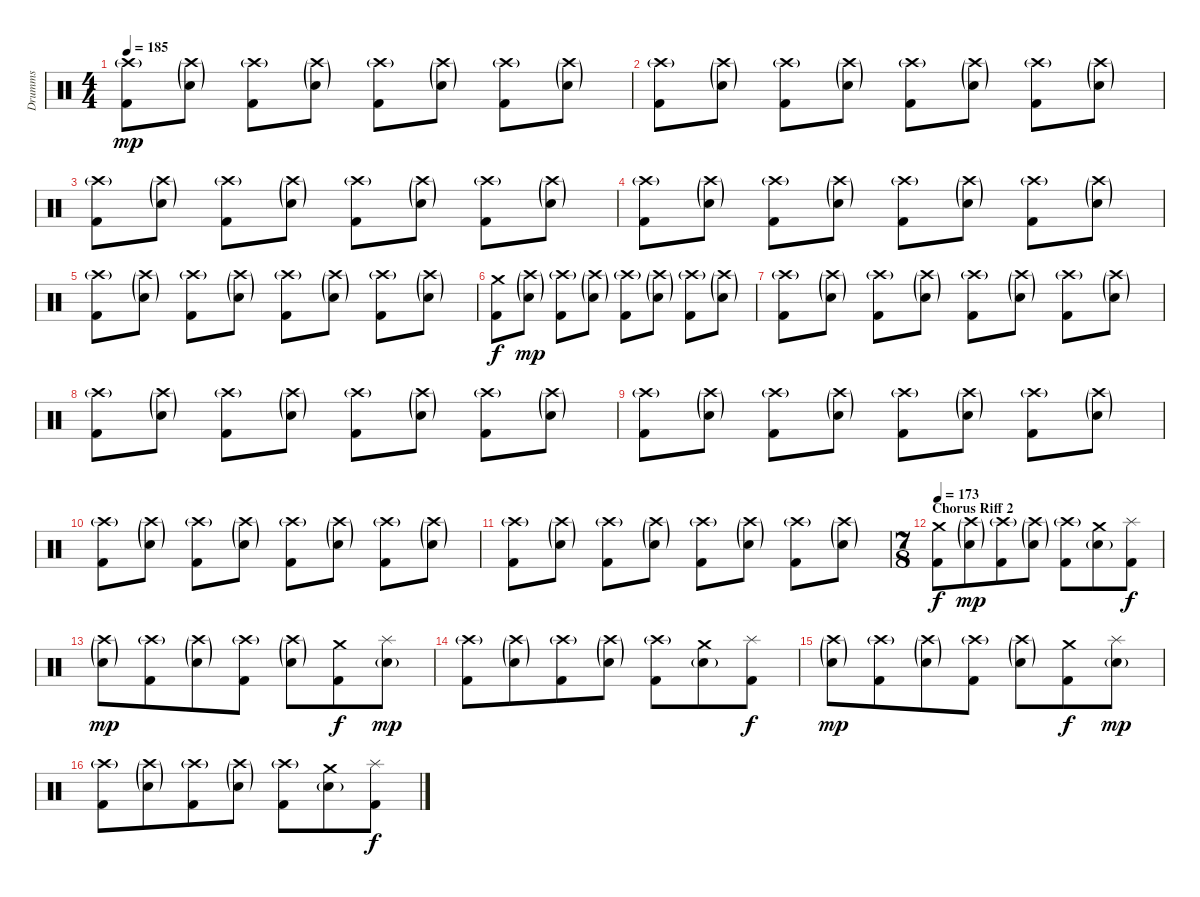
\track ("Drumms" "Drumms") {instrument percussion}
\staff {score}
\articulation defaults
\ts (4 4)
\tempo 185
\clef neutral
\ks c
("Crash high (hit)"{g} "Kick (hit) 2").8{dy mp} ("Crash high (hit)"{g} "Snare (hit) 2"{g}).8 ("Crash high (hit)"{g} "Kick (hit) 2").8 ("Crash high (hit)"{g} "Snare (hit) 2"{g}).8 ("Crash high (hit)"{g} "Kick (hit) 2").8 ("Crash high (hit)"{g} "Snare (hit) 2"{g}).8 ("Crash high (hit)"{g} "Kick (hit) 2").8 ("Crash high (hit)"{g} "Snare (hit) 2"{g}).8 |
("Crash high (hit)"{g} "Kick (hit) 2").8 ("Crash high (hit)"{g} "Snare (hit) 2"{g}).8 ("Crash high (hit)"{g} "Kick (hit) 2").8 ("Crash high (hit)"{g} "Snare (hit) 2"{g}).8 ("Crash high (hit)"{g} "Kick (hit) 2").8 ("Crash high (hit)"{g} "Snare (hit) 2"{g}).8 ("Crash high (hit)"{g} "Kick (hit) 2").8 ("Crash high (hit)"{g} "Snare (hit) 2"{g}).8 |
("Crash high (hit)"{g} "Kick (hit) 2").8 ("Crash high (hit)"{g} "Snare (hit) 2"{g}).8 ("Crash high (hit)"{g} "Kick (hit) 2").8 ("Crash high (hit)"{g} "Snare (hit) 2"{g}).8 ("Crash high (hit)"{g} "Kick (hit) 2").8 ("Crash high (hit)"{g} "Snare (hit) 2"{g}).8 ("Crash high (hit)"{g} "Kick (hit) 2").8 ("Crash high (hit)"{g} "Snare (hit) 2"{g}).8 |
("Crash high (hit)"{g} "Kick (hit) 2").8 ("Crash high (hit)"{g} "Snare (hit) 2"{g}).8 ("Crash high (hit)"{g} "Kick (hit) 2").8 ("Crash high (hit)"{g} "Snare (hit) 2"{g}).8 ("Crash high (hit)"{g} "Kick (hit) 2").8 ("Crash high (hit)"{g} "Snare (hit) 2"{g}).8 ("Crash high (hit)"{g} "Kick (hit) 2").8 ("Crash high (hit)"{g} "Snare (hit) 2"{g}).8 |
("Crash high (hit)"{g} "Kick (hit) 2").8 ("Crash high (hit)"{g} "Snare (hit) 2"{g}).8 ("Crash high (hit)"{g} "Kick (hit) 2").8 ("Crash high (hit)"{g} "Snare (hit) 2"{g}).8 ("Crash high (hit)"{g} "Kick (hit) 2").8 ("Crash high (hit)"{g} "Snare (hit) 2"{g}).8 ("Crash high (hit)"{g} "Kick (hit) 2").8 ("Crash high (hit)"{g} "Snare (hit) 2"{g}).8 |
("Crash medium (hit)" "Kick (hit) 2").8{dy f} ("Crash high (hit)"{g} "Snare (hit) 2"{g}).8{dy mp} ("Crash high (hit)"{g} "Kick (hit) 2").8 ("Crash high (hit)"{g} "Snare (hit) 2"{g}).8 ("Crash high (hit)"{g} "Kick (hit) 2").8 ("Crash high (hit)"{g} "Snare (hit) 2"{g}).8 ("Crash high (hit)"{g} "Kick (hit) 2").8 ("Crash high (hit)"{g} "Snare (hit) 2"{g}).8 |
("Crash high (hit)"{g} "Kick (hit) 2").8 ("Crash high (hit)"{g} "Snare (hit) 2"{g}).8 ("Crash high (hit)"{g} "Kick (hit) 2").8 ("Crash high (hit)"{g} "Snare (hit) 2"{g}).8 ("Crash high (hit)"{g} "Kick (hit) 2").8 ("Crash high (hit)"{g} "Snare (hit) 2"{g}).8 ("Crash high (hit)"{g} "Kick (hit) 2").8 ("Crash high (hit)"{g} "Snare (hit) 2"{g}).8 |
("Crash high (hit)"{g} "Kick (hit) 2").8 ("Crash high (hit)"{g} "Snare (hit) 2"{g}).8 ("Crash high (hit)"{g} "Kick (hit) 2").8 ("Crash high (hit)"{g} "Snare (hit) 2"{g}).8 ("Crash high (hit)"{g} "Kick (hit) 2").8 ("Crash high (hit)"{g} "Snare (hit) 2"{g}).8 ("Crash high (hit)"{g} "Kick (hit) 2").8 ("Crash high (hit)"{g} "Snare (hit) 2"{g}).8 |
("Crash high (hit)"{g} "Kick (hit) 2").8 ("Crash high (hit)"{g} "Snare (hit) 2"{g}).8 ("Crash high (hit)"{g} "Kick (hit) 2").8 ("Crash high (hit)"{g} "Snare (hit) 2"{g}).8 ("Crash high (hit)"{g} "Kick (hit) 2").8 ("Crash high (hit)"{g} "Snare (hit) 2"{g}).8 ("Crash high (hit)"{g} "Kick (hit) 2").8 ("Crash high (hit)"{g} "Snare (hit) 2"{g}).8 |
("Crash high (hit)"{g} "Kick (hit) 2").8 ("Crash high (hit)"{g} "Snare (hit) 2"{g}).8 ("Crash high (hit)"{g} "Kick (hit) 2").8 ("Crash high (hit)"{g} "Snare (hit) 2"{g}).8 ("Crash high (hit)"{g} "Kick (hit) 2").8 ("Crash high (hit)"{g} "Snare (hit) 2"{g}).8 ("Crash high (hit)"{g} "Kick (hit) 2").8 ("Crash high (hit)"{g} "Snare (hit) 2"{g}).8 |
("Crash high (hit)"{g} "Kick (hit) 2").8 ("Crash high (hit)"{g} "Snare (hit) 2"{g}).8 ("Crash high (hit)"{g} "Kick (hit) 2").8 ("Crash high (hit)"{g} "Snare (hit) 2"{g}).8 ("Crash high (hit)"{g} "Kick (hit) 2").8 ("Crash high (hit)"{g} "Snare (hit) 2"{g}).8 ("Crash high (hit)"{g} "Kick (hit) 2").8 ("Crash high (hit)"{g} "Snare (hit) 2"{g}).8 |
\ts (7 8)
\section ("" "Chorus Riff 2")
\tempo 173
("Crash medium (hit)" "Kick (hit) 2").8{dy f} ("Crash high (hit)"{g} "Snare (hit) 2"{g}).8{dy mp} ("Crash high (hit)"{g} "Kick (hit) 2").8 ("Crash high (hit)"{g} "Snare (hit) 2"{g}).8 ("Crash high (hit)"{g} "Kick (hit) 2").8 ("Crash medium (hit)" "Snare (hit) 2"{g}).8 ("Splash (hit)" "Kick (hit) 2").8{dy f} |
("Crash high (hit)"{g} "Snare (hit) 2"{g}).8{dy mp} ("Crash high (hit)"{g} "Kick (hit) 2").8 ("Crash high (hit)"{g} "Snare (hit) 2"{g}).8 ("Crash high (hit)"{g} "Kick (hit) 2").8 ("Crash high (hit)"{g} "Snare (hit) 2"{g}).8 ("Crash medium (hit)" "Kick (hit) 2").8{dy f} ("Splash (hit)" "Snare (hit) 2"{g}).8{dy mp} |
("Crash high (hit)"{g} "Kick (hit) 2").8 ("Crash high (hit)"{g} "Snare (hit) 2"{g}).8 ("Crash high (hit)"{g} "Kick (hit) 2").8 ("Crash high (hit)"{g} "Snare (hit) 2"{g}).8 ("Crash high (hit)"{g} "Kick (hit) 2").8 ("Crash medium (hit)" "Snare (hit) 2"{g}).8 ("Splash (hit)" "Kick (hit) 2").8{dy f} |
("Crash high (hit)"{g} "Snare (hit) 2"{g}).8{dy mp} ("Crash high (hit)"{g} "Kick (hit) 2").8 ("Crash high (hit)"{g} "Snare (hit) 2"{g}).8 ("Crash high (hit)"{g} "Kick (hit) 2").8 ("Crash high (hit)"{g} "Snare (hit) 2"{g}).8 ("Crash medium (hit)" "Kick (hit) 2").8{dy f} ("Splash (hit)" "Snare (hit) 2"{g}).8{dy mp} |
("Crash high (hit)"{g} "Kick (hit) 2").8 ("Crash high (hit)"{g} "Snare (hit) 2"{g}).8 ("Crash high (hit)"{g} "Kick (hit) 2").8 ("Crash high (hit)"{g} "Snare (hit) 2"{g}).8 ("Crash high (hit)"{g} "Kick (hit) 2").8 ("Crash medium (hit)" "Snare (hit) 2"{g}).8 ("Splash (hit)" "Kick (hit) 2").8{dy f}
